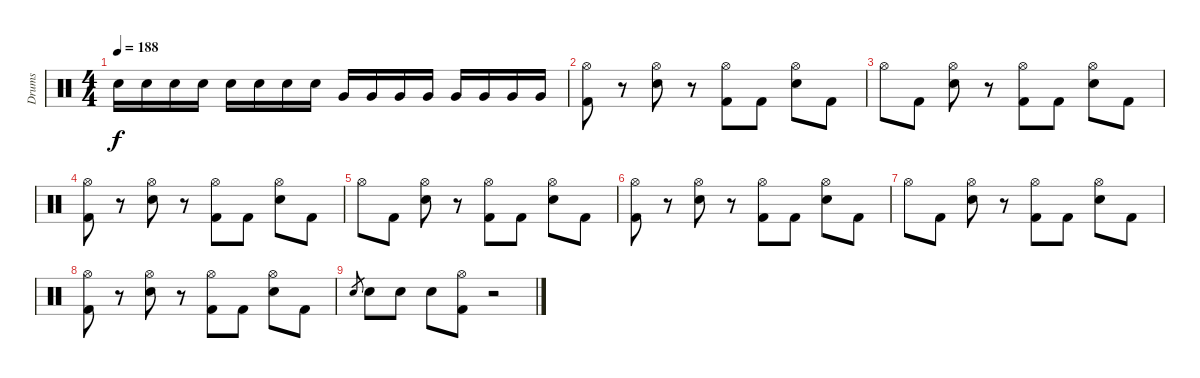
\track ("Drums" "Drums") {instrument percussion}
\staff {score}
\articulation defaults
\ts (4 4)
\tempo 188
\clef neutral
\ks c "Electric Snare (hit)".16{dy f} "Electric Snare (hit)".16 "Electric Snare (hit)".16 "Electric Snare (hit)".16 "Electric Snare (hit)".16 "Electric Snare (hit)".16 "Electric Snare (hit)".16 "Electric Snare (hit)".16 "Very Low Tom (hit)".16 "Very Low Tom (hit)".16 "Very Low Tom (hit)".16 "Very Low Tom (hit)".16 "Very Low Tom (hit)".16 "Very Low Tom (hit)".16 "Very Low Tom (hit)".16 "Very Low Tom (hit)".16
|
("Hi-Hat (open)" "Kick (hit) 2").8 r.8 ("Hi-Hat (open)" "Electric Snare (hit)").8 r.8 ("Hi-Hat (open)" "Kick (hit) 2").8 "Kick (hit) 2".8 ("Hi-Hat (open)" "Electric Snare (hit)").8 "Kick (hit) 2".8 |
"Hi-Hat (open)".8 "Kick (hit) 2".8 ("Hi-Hat (open)" "Electric Snare (hit)").8 r.8 ("Hi-Hat (open)" "Kick (hit) 2").8 "Kick (hit) 2".8 ("Hi-Hat (open)" "Electric Snare (hit)").8 "Kick (hit) 2".8 |
("Hi-Hat (open)" "Kick (hit) 2").8 r.8 ("Hi-Hat (open)" "Electric Snare (hit)").8 r.8 ("Hi-Hat (open)" "Kick (hit) 2").8 "Kick (hit) 2".8 ("Hi-Hat (open)" "Electric Snare (hit)").8 "Kick (hit) 2".8 |
"Hi-Hat (open)".8 "Kick (hit) 2".8 ("Hi-Hat (open)" "Electric Snare (hit)").8 r.8 ("Hi-Hat (open)" "Kick (hit) 2").8 "Kick (hit) 2".8 ("Hi-Hat (open)" "Electric Snare (hit)").8 "Kick (hit) 2".8 |
("Hi-Hat (open)" "Kick (hit) 2").8 r.8 ("Hi-Hat (open)" "Electric Snare (hit)").8 r.8 ("Hi-Hat (open)" "Kick (hit) 2").8 "Kick (hit) 2".8 ("Hi-Hat (open)" "Electric Snare (hit)").8 "Kick (hit) 2".8 |
"Hi-Hat (open)".8 "Kick (hit) 2".8 ("Hi-Hat (open)" "Electric Snare (hit)").8 r.8 ("Hi-Hat (open)" "Kick (hit) 2").8 "Kick (hit) 2".8 ("Hi-Hat (open)" "Electric Snare (hit)").8 "Kick (hit) 2".8 |
("Hi-Hat (open)" "Kick (hit) 2").8 r.8 ("Hi-Hat (open)" "Electric Snare (hit)").8 r.8 ("Hi-Hat (open)" "Kick (hit) 2").8 "Kick (hit) 2".8 ("Hi-Hat (open)" "Electric Snare (hit)").8 "Kick (hit) 2".8 |
"Electric Snare (hit)".8{gr} "Electric Snare (hit)".8 "Electric Snare (hit)".8 "Electric Snare (hit)".8 ("Hi-Hat (open)" "Kick (hit) 2").8 r.2
